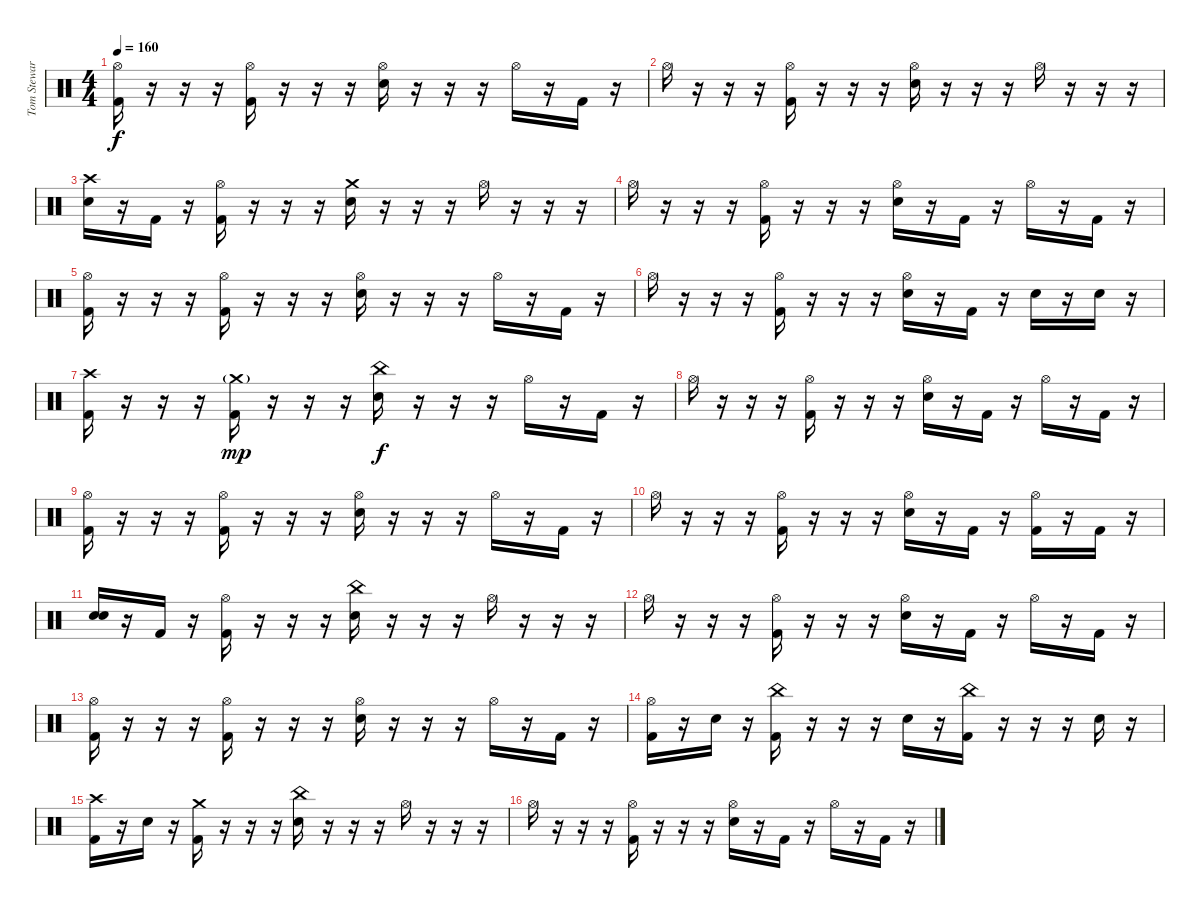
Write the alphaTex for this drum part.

\track ("Tom Steward" "Tom Stewar") {instrument percussion}
\staff {score}
\articulation defaults
\ts (4 4)
\tempo 160
\clef neutral
\ks c
("Hi-Hat (open)" "Kick (hit) 2").16{dy f} r.16 r.16 r.16 ("Hi-Hat (open)" "Kick (hit) 2").16 r.16 r.16 r.16 ("Hi-Hat (open)" "Snare (hit) 2").16 r.16 r.16 r.16 "Hi-Hat (open)".16 r.16 "Kick (hit) 2".16 r.16 |
"Hi-Hat (open)".16 r.16 r.16 r.16 ("Hi-Hat (open)" "Kick (hit) 2").16 r.16 r.16 r.16 ("Hi-Hat (open)" "Snare (hit) 2").16 r.16 r.16 r.16 "Hi-Hat (open)".16 r.16 r.16 r.16 |
("Crash high (hit)" "Snare (hit) 2").16 r.16 "Kick (hit) 2".16 r.16 ("Hi-Hat (open)" "Kick (hit) 2").16 r.16 r.16 r.16 ("Crash medium (hit)" "Snare (hit) 2").16 r.16 r.16 r.16 "Hi-Hat (open)".16 r.16 r.16 r.16 |
"Hi-Hat (open)".16 r.16 r.16 r.16 ("Hi-Hat (open)" "Kick (hit) 2").16 r.16 r.16 r.16 ("Hi-Hat (open)" "Snare (hit) 2").16 r.16 "Kick (hit) 2".16 r.16 "Hi-Hat (open)".16 r.16 "Kick (hit) 2".16 r.16 |
("Hi-Hat (open)" "Kick (hit) 2").16 r.16 r.16 r.16 ("Hi-Hat (open)" "Kick (hit) 2").16 r.16 r.16 r.16 ("Hi-Hat (open)" "Snare (hit) 2").16 r.16 r.16 r.16 "Hi-Hat (open)".16 r.16 "Kick (hit) 2".16 r.16 |
"Hi-Hat (open)".16 r.16 r.16 r.16 ("Hi-Hat (open)" "Kick (hit) 2").16 r.16 r.16 r.16 ("Hi-Hat (open)" "Snare (hit) 2").16 r.16 "Kick (hit) 2".16 r.16 "Snare (hit) 2".16 r.16 "Snare (hit) 2".16 r.16 |
("Crash high (hit)" "Kick (hit) 2").16 r.16 r.16 r.16 ("Crash medium (hit)"{g} "Kick (hit) 2").16{dy mp} r.16 r.16 r.16 ("China (hit)" "Snare (hit) 2").16{dy f} r.16 r.16 r.16 "Hi-Hat (open)".16 r.16 "Kick (hit) 2".16 r.16 |
"Hi-Hat (open)".16 r.16 r.16 r.16 ("Hi-Hat (open)" "Kick (hit) 2").16 r.16 r.16 r.16 ("Hi-Hat (open)" "Snare (hit) 2").16 r.16 "Kick (hit) 2".16 r.16 "Hi-Hat (open)".16 r.16 "Kick (hit) 2".16 r.16 |
("Hi-Hat (open)" "Kick (hit) 2").16 r.16 r.16 r.16 ("Hi-Hat (open)" "Kick (hit) 2").16 r.16 r.16 r.16 ("Hi-Hat (open)" "Snare (hit) 2").16 r.16 r.16 r.16 "Hi-Hat (open)".16 r.16 "Kick (hit) 2".16 r.16 |
"Hi-Hat (open)".16 r.16 r.16 r.16 ("Hi-Hat (open)" "Kick (hit) 2").16 r.16 r.16 r.16 ("Hi-Hat (open)" "Snare (hit) 2").16 r.16 "Kick (hit) 2".16 r.16 ("Hi-Hat (open)" "Kick (hit) 2").16 r.16 "Kick (hit) 2".16 r.16 |
("Snare (hit) 2" "Snare (hit) 2").16 r.16 "Kick (hit) 2".16 r.16 ("Hi-Hat (open)" "Kick (hit) 2").16 r.16 r.16 r.16 ("China (hit)" "Snare (hit) 2").16 r.16 r.16 r.16 "Hi-Hat (open)".16 r.16 r.16 r.16 |
"Hi-Hat (open)".16 r.16 r.16 r.16 ("Hi-Hat (open)" "Kick (hit) 2").16 r.16 r.16 r.16 ("Hi-Hat (open)" "Snare (hit) 2").16 r.16 "Kick (hit) 2".16 r.16 "Hi-Hat (open)".16 r.16 "Kick (hit) 2".16 r.16 |
("Hi-Hat (open)" "Kick (hit) 2").16 r.16 r.16 r.16 ("Hi-Hat (open)" "Kick (hit) 2").16 r.16 r.16 r.16 ("Hi-Hat (open)" "Snare (hit) 2").16 r.16 r.16 r.16 "Hi-Hat (open)".16 r.16 "Kick (hit) 2".16 r.16 |
("Hi-Hat (open)" "Kick (hit) 2").16 r.16 "Snare (hit) 2".16 r.16 ("China (hit)" "Kick (hit) 2").16 r.16 r.16 r.16 "Snare (hit) 2".16 r.16 ("China (hit)" "Kick (hit) 2").16 r.16 r.16 r.16 "Snare (hit) 2".16 r.16 |
("Crash high (hit)" "Kick (hit) 2").16 r.16 "Snare (hit) 2".16 r.16 ("Crash medium (hit)" "Kick (hit) 2").16 r.16 r.16 r.16 ("China (hit)" "Snare (hit) 2").16 r.16 r.16 r.16 "Hi-Hat (open)".16 r.16 r.16 r.16 |
"Hi-Hat (open)".16 r.16 r.16 r.16 ("Hi-Hat (open)" "Kick (hit) 2").16 r.16 r.16 r.16 ("Hi-Hat (open)" "Snare (hit) 2").16 r.16 "Kick (hit) 2".16 r.16 "Hi-Hat (open)".16 r.16 "Kick (hit) 2".16 r.16
